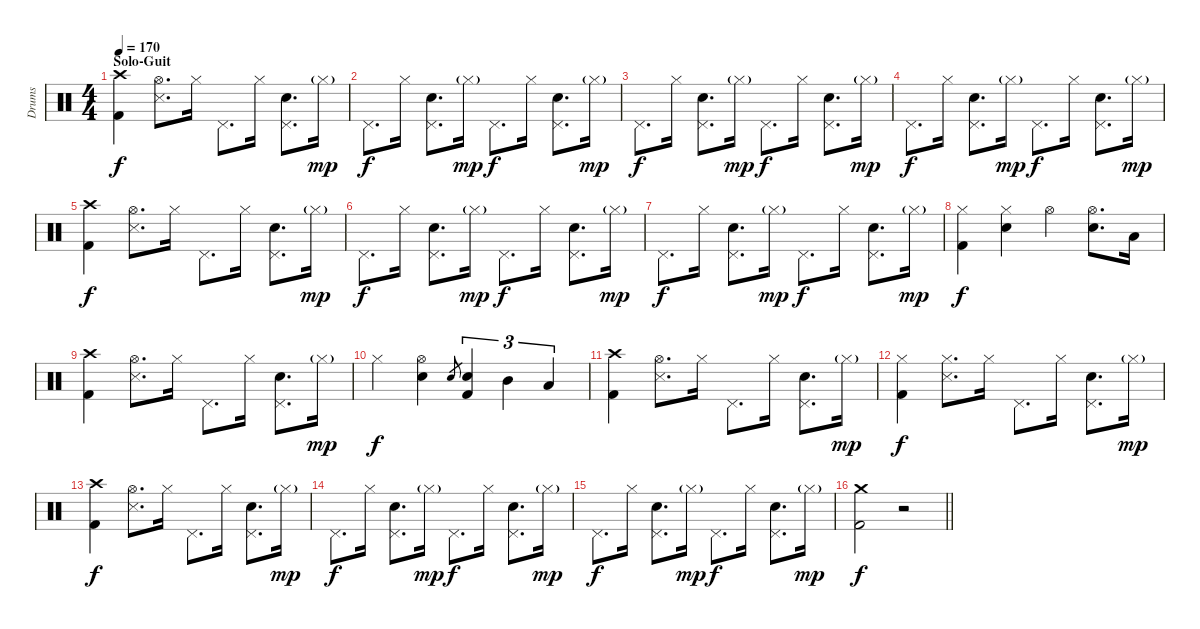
\track ("Drums" "Drums") {instrument percussion}
\staff {score}
\articulation defaults
\ts (4 4)
\section ("" "Solo-Guit")
\tempo 170
\clef neutral
\ks c
("Crash high (hit)" "Kick (hit) 2").4{dy f} ("Hi-Hat (open)" "Snare (side stick) 3").8{d} "Hi-Hat (closed)".16 "Pedal Hi-Hat (hit)".8{d} "Hi-Hat (closed)".16 ("Pedal Hi-Hat (hit)" "Snare (hit) 2").8{d} "Hi-Hat (closed)"{g}.16{dy mp} |
"Pedal Hi-Hat (hit)".8{d dy f} "Hi-Hat (closed)".16 ("Pedal Hi-Hat (hit)" "Snare (hit) 2").8{d} "Hi-Hat (closed)"{g}.16{dy mp} "Pedal Hi-Hat (hit)".8{d dy f} "Hi-Hat (closed)".16 ("Pedal Hi-Hat (hit)" "Snare (hit) 2").8{d} "Hi-Hat (closed)"{g}.16{dy mp} |
"Pedal Hi-Hat (hit)".8{d dy f} "Hi-Hat (closed)".16 ("Pedal Hi-Hat (hit)" "Snare (hit) 2").8{d} "Hi-Hat (closed)"{g}.16{dy mp} "Pedal Hi-Hat (hit)".8{d dy f} "Hi-Hat (closed)".16 ("Pedal Hi-Hat (hit)" "Snare (hit) 2").8{d} "Hi-Hat (closed)"{g}.16{dy mp} |
"Pedal Hi-Hat (hit)".8{d dy f} "Hi-Hat (closed)".16 ("Pedal Hi-Hat (hit)" "Snare (hit) 2").8{d} "Hi-Hat (closed)"{g}.16{dy mp} "Pedal Hi-Hat (hit)".8{d dy f} "Hi-Hat (closed)".16 ("Pedal Hi-Hat (hit)" "Snare (hit) 2").8{d} "Hi-Hat (closed)"{g}.16{dy mp} |
("Crash high (hit)" "Kick (hit) 2").4{dy f} ("Hi-Hat (open)" "Snare (side stick) 3").8{d} "Hi-Hat (closed)".16 "Pedal Hi-Hat (hit)".8{d} "Hi-Hat (closed)".16 ("Pedal Hi-Hat (hit)" "Snare (hit) 2").8{d} "Hi-Hat (closed)"{g}.16{dy mp} |
"Pedal Hi-Hat (hit)".8{d dy f} "Hi-Hat (closed)".16 ("Pedal Hi-Hat (hit)" "Snare (hit) 2").8{d} "Hi-Hat (closed)"{g}.16{dy mp} "Pedal Hi-Hat (hit)".8{d dy f} "Hi-Hat (closed)".16 ("Pedal Hi-Hat (hit)" "Snare (hit) 2").8{d} "Hi-Hat (closed)"{g}.16{dy mp} |
"Pedal Hi-Hat (hit)".8{d dy f} "Hi-Hat (closed)".16 ("Pedal Hi-Hat (hit)" "Snare (hit) 2").8{d} "Hi-Hat (closed)"{g}.16{dy mp} "Pedal Hi-Hat (hit)".8{d dy f} "Hi-Hat (closed)".16 ("Pedal Hi-Hat (hit)" "Snare (hit) 2").8{d} "Hi-Hat (closed)"{g}.16{dy mp} |
("Hi-Hat (closed)" "Kick (hit) 2").4{dy f} ("Hi-Hat (closed)" "Snare (hit) 2").4 "Hi-Hat (open)".4 ("Hi-Hat (open)" "Snare (hit) 2").8{d} "Low Tom (hit)".16 |
("Crash high (hit)" "Kick (hit) 2").4 ("Hi-Hat (open)" "Snare (side stick) 3").8{d} "Hi-Hat (closed)".16 "Pedal Hi-Hat (hit)".8{d} "Hi-Hat (closed)".16 ("Pedal Hi-Hat (hit)" "Snare (hit) 2").8{d} "Hi-Hat (closed)"{g}.16{dy mp} |
"Hi-Hat (closed)".4{dy f} ("Hi-Hat (open)" "Snare (hit) 2").4 "Snare (hit) 2".8{gr} ("Snare (hit) 2" "Kick (hit) 2").4{tu (3 2)} "Mid Tom (hit)".4{tu (3 2)} "Low Tom (hit)".4{tu (3 2)} |
("Crash high (hit)" "Kick (hit) 2").4 ("Hi-Hat (open)" "Snare (side stick) 3").8{d} "Hi-Hat (closed)".16 "Pedal Hi-Hat (hit)".8{d} "Hi-Hat (closed)".16 ("Pedal Hi-Hat (hit)" "Snare (hit) 2").8{d} "Hi-Hat (closed)"{g}.16{dy mp} |
("Hi-Hat (closed)" "Kick (hit) 2").4{dy f} ("Hi-Hat (closed)" "Snare (side stick) 3").8{d} "Hi-Hat (closed)".16 "Pedal Hi-Hat (hit)".8{d} "Hi-Hat (closed)".16 ("Pedal Hi-Hat (hit)" "Snare (hit) 2").8{d} "Hi-Hat (closed)"{g}.16{dy mp} |
("Crash high (hit)" "Kick (hit) 2").4{dy f} ("Hi-Hat (open)" "Snare (side stick) 3").8{d} "Hi-Hat (closed)".16 "Pedal Hi-Hat (hit)".8{d} "Hi-Hat (closed)".16 ("Pedal Hi-Hat (hit)" "Snare (hit) 2").8{d} "Hi-Hat (closed)"{g}.16{dy mp} |
"Pedal Hi-Hat (hit)".8{d dy f} "Hi-Hat (closed)".16 ("Pedal Hi-Hat (hit)" "Snare (hit) 2").8{d} "Hi-Hat (closed)"{g}.16{dy mp} "Pedal Hi-Hat (hit)".8{d dy f} "Hi-Hat (closed)".16 ("Pedal Hi-Hat (hit)" "Snare (hit) 2").8{d} "Hi-Hat (closed)"{g}.16{dy mp} |
"Pedal Hi-Hat (hit)".8{d dy f} "Hi-Hat (closed)".16 ("Pedal Hi-Hat (hit)" "Snare (hit) 2").8{d} "Hi-Hat (closed)"{g}.16{dy mp} "Pedal Hi-Hat (hit)".8{d dy f} "Hi-Hat (closed)".16 ("Pedal Hi-Hat (hit)" "Snare (hit) 2").8{d} "Hi-Hat (closed)"{g}.16{dy mp} |
\barLineRight lightlight
("Crash medium (hit)" "Kick (hit) 2").2{dy f} r.2
